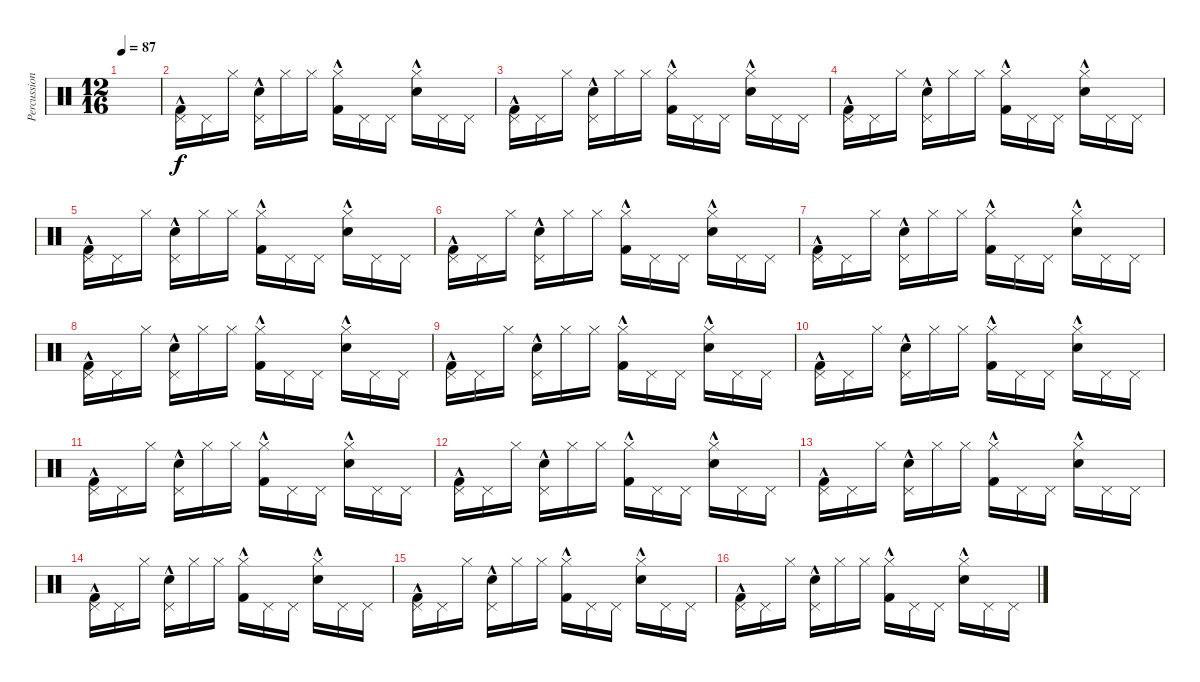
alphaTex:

\track ("Percussion" "Percussion") {instrument percussion}
\staff {score}
\articulation defaults
\ts (12 16)
\tempo 87
\clef neutral
\ks c
|
("Kick (hit) 2"{hac} "Pedal Hi-Hat (hit)").16 "Pedal Hi-Hat (hit)".16 "Hi-Hat (closed)".16 ("Hand Clap (hit)"{hac} "Pedal Hi-Hat (hit)").16 "Hi-Hat (closed)".16 "Hi-Hat (closed)".16 ("Kick (hit) 2"{hac} "Hi-Hat (closed)").16 "Pedal Hi-Hat (hit)".16 "Pedal Hi-Hat (hit)".16 ("Hand Clap (hit)"{hac} "Hi-Hat (closed)").16 "Pedal Hi-Hat (hit)".16 "Pedal Hi-Hat (hit)".16 |
("Kick (hit) 2"{hac} "Pedal Hi-Hat (hit)").16 "Pedal Hi-Hat (hit)".16 "Hi-Hat (closed)".16 ("Hand Clap (hit)"{hac} "Pedal Hi-Hat (hit)").16 "Hi-Hat (closed)".16 "Hi-Hat (closed)".16 ("Kick (hit) 2"{hac} "Hi-Hat (closed)").16 "Pedal Hi-Hat (hit)".16 "Pedal Hi-Hat (hit)".16 ("Hand Clap (hit)"{hac} "Hi-Hat (closed)").16 "Pedal Hi-Hat (hit)".16 "Pedal Hi-Hat (hit)".16 |
("Kick (hit) 2"{hac} "Pedal Hi-Hat (hit)").16 "Pedal Hi-Hat (hit)".16 "Hi-Hat (closed)".16 ("Hand Clap (hit)"{hac} "Pedal Hi-Hat (hit)").16 "Hi-Hat (closed)".16 "Hi-Hat (closed)".16 ("Kick (hit) 2"{hac} "Hi-Hat (closed)").16 "Pedal Hi-Hat (hit)".16 "Pedal Hi-Hat (hit)".16 ("Hand Clap (hit)"{hac} "Hi-Hat (closed)").16 "Pedal Hi-Hat (hit)".16 "Pedal Hi-Hat (hit)".16 |
("Kick (hit) 2"{hac} "Pedal Hi-Hat (hit)").16 "Pedal Hi-Hat (hit)".16 "Hi-Hat (closed)".16 ("Hand Clap (hit)"{hac} "Pedal Hi-Hat (hit)").16 "Hi-Hat (closed)".16 "Hi-Hat (closed)".16 ("Kick (hit) 2"{hac} "Hi-Hat (closed)").16 "Pedal Hi-Hat (hit)".16 "Pedal Hi-Hat (hit)".16 ("Hand Clap (hit)"{hac} "Hi-Hat (closed)").16 "Pedal Hi-Hat (hit)".16 "Pedal Hi-Hat (hit)".16 |
("Kick (hit) 2"{hac} "Pedal Hi-Hat (hit)").16 "Pedal Hi-Hat (hit)".16 "Hi-Hat (closed)".16 ("Hand Clap (hit)"{hac} "Pedal Hi-Hat (hit)").16 "Hi-Hat (closed)".16 "Hi-Hat (closed)".16 ("Kick (hit) 2"{hac} "Hi-Hat (closed)").16 "Pedal Hi-Hat (hit)".16 "Pedal Hi-Hat (hit)".16 ("Hand Clap (hit)"{hac} "Hi-Hat (closed)").16 "Pedal Hi-Hat (hit)".16 "Pedal Hi-Hat (hit)".16 |
("Kick (hit) 2"{hac} "Pedal Hi-Hat (hit)").16 "Pedal Hi-Hat (hit)".16 "Hi-Hat (closed)".16 ("Hand Clap (hit)"{hac} "Pedal Hi-Hat (hit)").16 "Hi-Hat (closed)".16 "Hi-Hat (closed)".16 ("Kick (hit) 2"{hac} "Hi-Hat (closed)").16 "Pedal Hi-Hat (hit)".16 "Pedal Hi-Hat (hit)".16 ("Hand Clap (hit)"{hac} "Hi-Hat (closed)").16 "Pedal Hi-Hat (hit)".16 "Pedal Hi-Hat (hit)".16 |
("Kick (hit) 2"{hac} "Pedal Hi-Hat (hit)").16 "Pedal Hi-Hat (hit)".16 "Hi-Hat (closed)".16 ("Hand Clap (hit)"{hac} "Pedal Hi-Hat (hit)").16 "Hi-Hat (closed)".16 "Hi-Hat (closed)".16 ("Kick (hit) 2"{hac} "Hi-Hat (closed)").16 "Pedal Hi-Hat (hit)".16 "Pedal Hi-Hat (hit)".16 ("Hand Clap (hit)"{hac} "Hi-Hat (closed)").16 "Pedal Hi-Hat (hit)".16 "Pedal Hi-Hat (hit)".16 |
("Kick (hit) 2"{hac} "Pedal Hi-Hat (hit)").16 "Pedal Hi-Hat (hit)".16 "Hi-Hat (closed)".16 ("Hand Clap (hit)"{hac} "Pedal Hi-Hat (hit)").16 "Hi-Hat (closed)".16 "Hi-Hat (closed)".16 ("Kick (hit) 2"{hac} "Hi-Hat (closed)").16 "Pedal Hi-Hat (hit)".16 "Pedal Hi-Hat (hit)".16 ("Hand Clap (hit)"{hac} "Hi-Hat (closed)").16 "Pedal Hi-Hat (hit)".16 "Pedal Hi-Hat (hit)".16 |
("Kick (hit) 2"{hac} "Pedal Hi-Hat (hit)").16 "Pedal Hi-Hat (hit)".16 "Hi-Hat (closed)".16 ("Hand Clap (hit)"{hac} "Pedal Hi-Hat (hit)").16 "Hi-Hat (closed)".16 "Hi-Hat (closed)".16 ("Kick (hit) 2"{hac} "Hi-Hat (closed)").16 "Pedal Hi-Hat (hit)".16 "Pedal Hi-Hat (hit)".16 ("Hand Clap (hit)"{hac} "Hi-Hat (closed)").16 "Pedal Hi-Hat (hit)".16 "Pedal Hi-Hat (hit)".16 |
("Kick (hit) 2"{hac} "Pedal Hi-Hat (hit)").16 "Pedal Hi-Hat (hit)".16 "Hi-Hat (closed)".16 ("Hand Clap (hit)"{hac} "Pedal Hi-Hat (hit)").16 "Hi-Hat (closed)".16 "Hi-Hat (closed)".16 ("Kick (hit) 2"{hac} "Hi-Hat (closed)").16 "Pedal Hi-Hat (hit)".16 "Pedal Hi-Hat (hit)".16 ("Hand Clap (hit)"{hac} "Hi-Hat (closed)").16 "Pedal Hi-Hat (hit)".16 "Pedal Hi-Hat (hit)".16 |
("Kick (hit) 2"{hac} "Pedal Hi-Hat (hit)").16 "Pedal Hi-Hat (hit)".16 "Hi-Hat (closed)".16 ("Hand Clap (hit)"{hac} "Pedal Hi-Hat (hit)").16 "Hi-Hat (closed)".16 "Hi-Hat (closed)".16 ("Kick (hit) 2"{hac} "Hi-Hat (closed)").16 "Pedal Hi-Hat (hit)".16 "Pedal Hi-Hat (hit)".16 ("Hand Clap (hit)"{hac} "Hi-Hat (closed)").16 "Pedal Hi-Hat (hit)".16 "Pedal Hi-Hat (hit)".16 |
("Kick (hit) 2"{hac} "Pedal Hi-Hat (hit)").16 "Pedal Hi-Hat (hit)".16 "Hi-Hat (closed)".16 ("Hand Clap (hit)"{hac} "Pedal Hi-Hat (hit)").16 "Hi-Hat (closed)".16 "Hi-Hat (closed)".16 ("Kick (hit) 2"{hac} "Hi-Hat (closed)").16 "Pedal Hi-Hat (hit)".16 "Pedal Hi-Hat (hit)".16 ("Hand Clap (hit)"{hac} "Hi-Hat (closed)").16 "Pedal Hi-Hat (hit)".16 "Pedal Hi-Hat (hit)".16 |
("Kick (hit) 2"{hac} "Pedal Hi-Hat (hit)").16 "Pedal Hi-Hat (hit)".16 "Hi-Hat (closed)".16 ("Hand Clap (hit)"{hac} "Pedal Hi-Hat (hit)").16 "Hi-Hat (closed)".16 "Hi-Hat (closed)".16 ("Kick (hit) 2"{hac} "Hi-Hat (closed)").16 "Pedal Hi-Hat (hit)".16 "Pedal Hi-Hat (hit)".16 ("Hand Clap (hit)"{hac} "Hi-Hat (closed)").16 "Pedal Hi-Hat (hit)".16 "Pedal Hi-Hat (hit)".16 |
("Kick (hit) 2"{hac} "Pedal Hi-Hat (hit)").16 "Pedal Hi-Hat (hit)".16 "Hi-Hat (closed)".16 ("Hand Clap (hit)"{hac} "Pedal Hi-Hat (hit)").16 "Hi-Hat (closed)".16 "Hi-Hat (closed)".16 ("Kick (hit) 2"{hac} "Hi-Hat (closed)").16 "Pedal Hi-Hat (hit)".16 "Pedal Hi-Hat (hit)".16 ("Hand Clap (hit)"{hac} "Hi-Hat (closed)").16 "Pedal Hi-Hat (hit)".16 "Pedal Hi-Hat (hit)".16 |
("Kick (hit) 2"{hac} "Pedal Hi-Hat (hit)").16 "Pedal Hi-Hat (hit)".16 "Hi-Hat (closed)".16 ("Hand Clap (hit)"{hac} "Pedal Hi-Hat (hit)").16 "Hi-Hat (closed)".16 "Hi-Hat (closed)".16 ("Kick (hit) 2"{hac} "Hi-Hat (closed)").16 "Pedal Hi-Hat (hit)".16 "Pedal Hi-Hat (hit)".16 ("Hand Clap (hit)"{hac} "Hi-Hat (closed)").16 "Pedal Hi-Hat (hit)".16 "Pedal Hi-Hat (hit)".16
